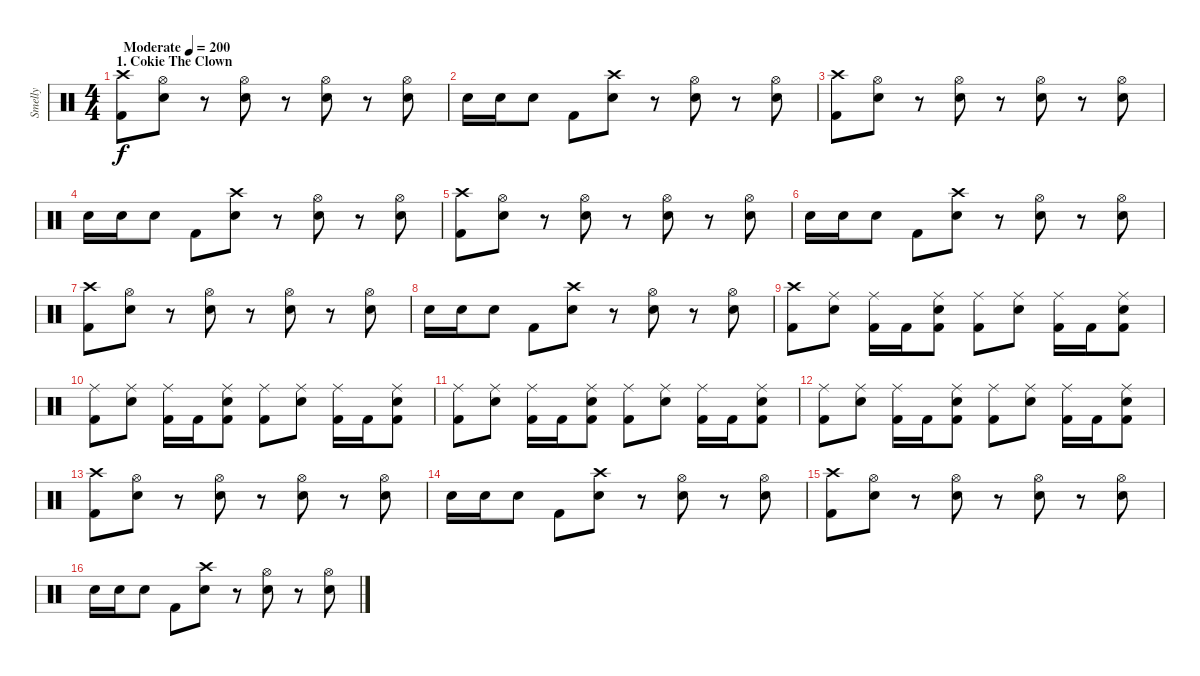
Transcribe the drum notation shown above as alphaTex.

\track ("Smelly" "Smelly") {instrument percussion}
\staff {score}
\articulation defaults
\ts (4 4)
\section ("" "1. Cokie The Clown")
\tempo (200 "Moderate")
\clef neutral
\ks c
("Crash high (hit)" "Kick (hit) 2").8{dy f} ("Hi-Hat (open)" "Electric Snare (hit)").8 r.8 ("Hi-Hat (open)" "Electric Snare (hit)").8 r.8 ("Hi-Hat (open)" "Electric Snare (hit)").8 r.8 ("Hi-Hat (open)" "Electric Snare (hit)").8 |
"Electric Snare (hit)".16 "Electric Snare (hit)".16 "Electric Snare (hit)".8 "Kick (hit) 2".8 ("Crash high (hit)" "Electric Snare (hit)").8 r.8 ("Hi-Hat (open)" "Electric Snare (hit)").8 r.8 ("Hi-Hat (open)" "Electric Snare (hit)").8 |
("Crash high (hit)" "Kick (hit) 2").8 ("Hi-Hat (open)" "Electric Snare (hit)").8 r.8 ("Hi-Hat (open)" "Electric Snare (hit)").8 r.8 ("Hi-Hat (open)" "Electric Snare (hit)").8 r.8 ("Hi-Hat (open)" "Electric Snare (hit)").8 |
"Electric Snare (hit)".16 "Electric Snare (hit)".16 "Electric Snare (hit)".8 "Kick (hit) 2".8 ("Crash high (hit)" "Electric Snare (hit)").8 r.8 ("Hi-Hat (open)" "Electric Snare (hit)").8 r.8 ("Hi-Hat (open)" "Electric Snare (hit)").8 |
("Crash high (hit)" "Kick (hit) 2").8 ("Hi-Hat (open)" "Electric Snare (hit)").8 r.8 ("Hi-Hat (open)" "Electric Snare (hit)").8 r.8 ("Hi-Hat (open)" "Electric Snare (hit)").8 r.8 ("Hi-Hat (open)" "Electric Snare (hit)").8 |
"Electric Snare (hit)".16 "Electric Snare (hit)".16 "Electric Snare (hit)".8 "Kick (hit) 2".8 ("Crash high (hit)" "Electric Snare (hit)").8 r.8 ("Hi-Hat (open)" "Electric Snare (hit)").8 r.8 ("Hi-Hat (open)" "Electric Snare (hit)").8 |
("Crash high (hit)" "Kick (hit) 2").8 ("Hi-Hat (open)" "Electric Snare (hit)").8 r.8 ("Hi-Hat (open)" "Electric Snare (hit)").8 r.8 ("Hi-Hat (open)" "Electric Snare (hit)").8 r.8 ("Hi-Hat (open)" "Electric Snare (hit)").8 |
"Electric Snare (hit)".16 "Electric Snare (hit)".16 "Electric Snare (hit)".8 "Kick (hit) 2".8 ("Crash high (hit)" "Electric Snare (hit)").8 r.8 ("Hi-Hat (open)" "Electric Snare (hit)").8 r.8 ("Hi-Hat (open)" "Electric Snare (hit)").8 |
("Crash high (hit)" "Kick (hit) 2").8 ("Ride (middle)" "Electric Snare (hit)").8 ("Ride (middle)" "Kick (hit) 2").16 "Kick (hit) 2".16 ("Ride (middle)" "Electric Snare (hit)" "Kick (hit) 2").8 ("Ride (middle)" "Kick (hit) 2").8 ("Ride (middle)" "Electric Snare (hit)").8 ("Ride (middle)" "Kick (hit) 2").16 "Kick (hit) 2".16 ("Ride (middle)" "Electric Snare (hit)" "Kick (hit) 2").8 |
("Ride (middle)" "Kick (hit) 2").8 ("Ride (middle)" "Electric Snare (hit)").8 ("Ride (middle)" "Kick (hit) 2").16 "Kick (hit) 2".16 ("Ride (middle)" "Electric Snare (hit)" "Kick (hit) 2").8 ("Ride (middle)" "Kick (hit) 2").8 ("Ride (middle)" "Electric Snare (hit)").8 ("Ride (middle)" "Kick (hit) 2").16 "Kick (hit) 2".16 ("Ride (middle)" "Electric Snare (hit)" "Kick (hit) 2").8 |
("Ride (middle)" "Kick (hit) 2").8 ("Ride (middle)" "Electric Snare (hit)").8 ("Ride (middle)" "Kick (hit) 2").16 "Kick (hit) 2".16 ("Ride (middle)" "Electric Snare (hit)" "Kick (hit) 2").8 ("Ride (middle)" "Kick (hit) 2").8 ("Ride (middle)" "Electric Snare (hit)").8 ("Ride (middle)" "Kick (hit) 2").16 "Kick (hit) 2".16 ("Ride (middle)" "Electric Snare (hit)" "Kick (hit) 2").8 |
("Ride (middle)" "Kick (hit) 2").8 ("Ride (middle)" "Electric Snare (hit)").8 ("Ride (middle)" "Kick (hit) 2").16 "Kick (hit) 2".16 ("Ride (middle)" "Electric Snare (hit)" "Kick (hit) 2").8 ("Ride (middle)" "Kick (hit) 2").8 ("Ride (middle)" "Electric Snare (hit)").8 ("Ride (middle)" "Kick (hit) 2").16 "Kick (hit) 2".16 ("Ride (middle)" "Electric Snare (hit)" "Kick (hit) 2").8 |
("Crash high (hit)" "Kick (hit) 2").8 ("Hi-Hat (open)" "Electric Snare (hit)").8 r.8 ("Hi-Hat (open)" "Electric Snare (hit)").8 r.8 ("Hi-Hat (open)" "Electric Snare (hit)").8 r.8 ("Hi-Hat (open)" "Electric Snare (hit)").8 |
"Electric Snare (hit)".16 "Electric Snare (hit)".16 "Electric Snare (hit)".8 "Kick (hit) 2".8 ("Crash high (hit)" "Electric Snare (hit)").8 r.8 ("Hi-Hat (open)" "Electric Snare (hit)").8 r.8 ("Hi-Hat (open)" "Electric Snare (hit)").8 |
("Crash high (hit)" "Kick (hit) 2").8 ("Hi-Hat (open)" "Electric Snare (hit)").8 r.8 ("Hi-Hat (open)" "Electric Snare (hit)").8 r.8 ("Hi-Hat (open)" "Electric Snare (hit)").8 r.8 ("Hi-Hat (open)" "Electric Snare (hit)").8 |
"Electric Snare (hit)".16 "Electric Snare (hit)".16 "Electric Snare (hit)".8 "Kick (hit) 2".8 ("Crash high (hit)" "Electric Snare (hit)").8 r.8 ("Hi-Hat (open)" "Electric Snare (hit)").8 r.8 ("Hi-Hat (open)" "Electric Snare (hit)").8
